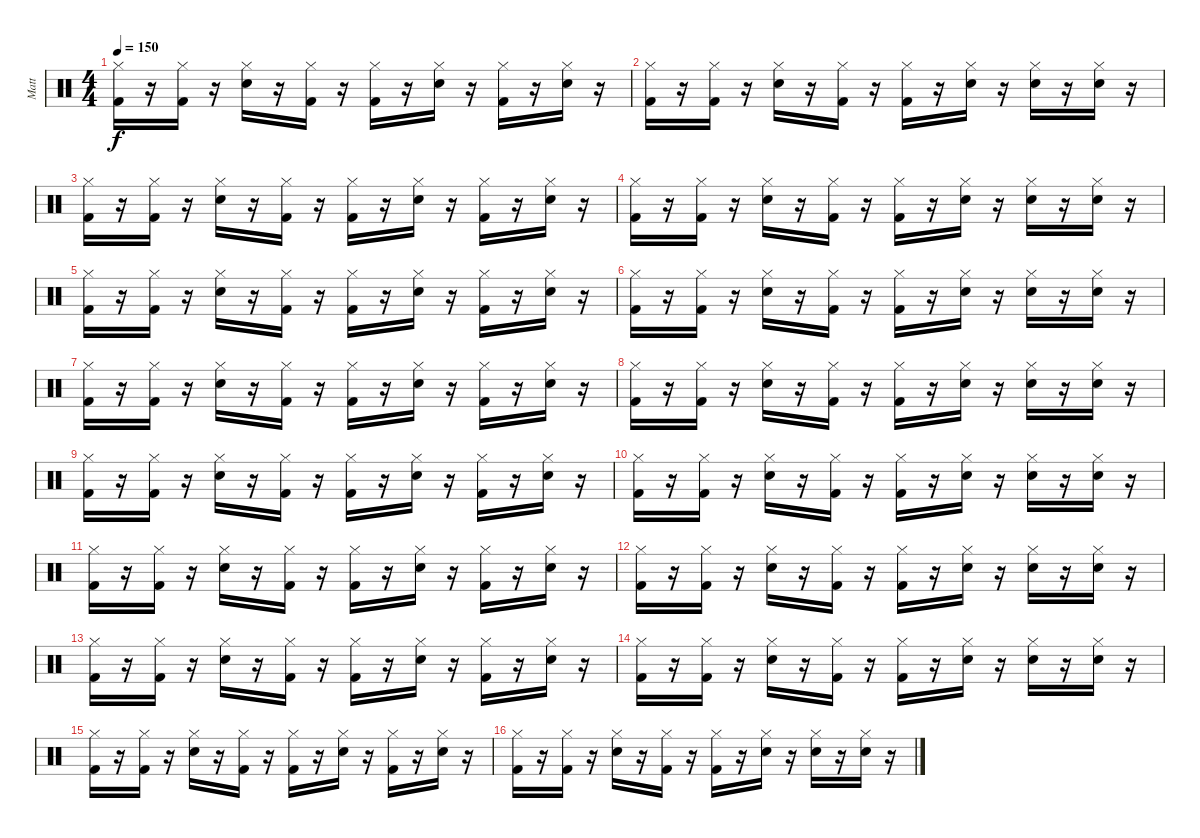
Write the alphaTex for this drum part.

\track ("Matt" "Matt") {instrument percussion}
\staff {score}
\articulation defaults
\ts (4 4)
\tempo 150
\clef neutral
\ks c
("Hi-Hat (closed)" "Kick (hit) 2").16{dy f} r.16 ("Hi-Hat (closed)" "Kick (hit) 2").16 r.16 ("Hi-Hat (closed)" "Snare (hit) 2").16 r.16 ("Hi-Hat (closed)" "Kick (hit) 2").16 r.16 ("Hi-Hat (closed)" "Kick (hit) 2").16 r.16 ("Hi-Hat (closed)" "Snare (hit) 2").16 r.16 ("Hi-Hat (closed)" "Kick (hit) 2").16 r.16 ("Hi-Hat (closed)" "Snare (hit) 2").16 r.16 |
("Hi-Hat (closed)" "Kick (hit) 2").16 r.16 ("Hi-Hat (closed)" "Kick (hit) 2").16 r.16 ("Hi-Hat (closed)" "Snare (hit) 2").16 r.16 ("Hi-Hat (closed)" "Kick (hit) 2").16 r.16 ("Hi-Hat (closed)" "Kick (hit) 2").16 r.16 ("Hi-Hat (closed)" "Snare (hit) 2").16 r.16 ("Hi-Hat (closed)" "Snare (hit) 2").16 r.16 ("Hi-Hat (closed)" "Snare (hit) 2").16 r.16 |
("Hi-Hat (closed)" "Kick (hit) 2").16 r.16 ("Hi-Hat (closed)" "Kick (hit) 2").16 r.16 ("Hi-Hat (closed)" "Snare (hit) 2").16 r.16 ("Hi-Hat (closed)" "Kick (hit) 2").16 r.16 ("Hi-Hat (closed)" "Kick (hit) 2").16 r.16 ("Hi-Hat (closed)" "Snare (hit) 2").16 r.16 ("Hi-Hat (closed)" "Kick (hit) 2").16 r.16 ("Hi-Hat (closed)" "Snare (hit) 2").16 r.16 |
("Hi-Hat (closed)" "Kick (hit) 2").16 r.16 ("Hi-Hat (closed)" "Kick (hit) 2").16 r.16 ("Hi-Hat (closed)" "Snare (hit) 2").16 r.16 ("Hi-Hat (closed)" "Kick (hit) 2").16 r.16 ("Hi-Hat (closed)" "Kick (hit) 2").16 r.16 ("Hi-Hat (closed)" "Snare (hit) 2").16 r.16 ("Hi-Hat (closed)" "Snare (hit) 2").16 r.16 ("Hi-Hat (closed)" "Snare (hit) 2").16 r.16 |
("Hi-Hat (closed)" "Kick (hit) 2").16 r.16 ("Hi-Hat (closed)" "Kick (hit) 2").16 r.16 ("Hi-Hat (closed)" "Snare (hit) 2").16 r.16 ("Hi-Hat (closed)" "Kick (hit) 2").16 r.16 ("Hi-Hat (closed)" "Kick (hit) 2").16 r.16 ("Hi-Hat (closed)" "Snare (hit) 2").16 r.16 ("Hi-Hat (closed)" "Kick (hit) 2").16 r.16 ("Hi-Hat (closed)" "Snare (hit) 2").16 r.16 |
("Hi-Hat (closed)" "Kick (hit) 2").16 r.16 ("Hi-Hat (closed)" "Kick (hit) 2").16 r.16 ("Hi-Hat (closed)" "Snare (hit) 2").16 r.16 ("Hi-Hat (closed)" "Kick (hit) 2").16 r.16 ("Hi-Hat (closed)" "Kick (hit) 2").16 r.16 ("Hi-Hat (closed)" "Snare (hit) 2").16 r.16 ("Hi-Hat (closed)" "Snare (hit) 2").16 r.16 ("Hi-Hat (closed)" "Snare (hit) 2").16 r.16 |
("Hi-Hat (closed)" "Kick (hit) 2").16 r.16 ("Hi-Hat (closed)" "Kick (hit) 2").16 r.16 ("Hi-Hat (closed)" "Snare (hit) 2").16 r.16 ("Hi-Hat (closed)" "Kick (hit) 2").16 r.16 ("Hi-Hat (closed)" "Kick (hit) 2").16 r.16 ("Hi-Hat (closed)" "Snare (hit) 2").16 r.16 ("Hi-Hat (closed)" "Kick (hit) 2").16 r.16 ("Hi-Hat (closed)" "Snare (hit) 2").16 r.16 |
("Hi-Hat (closed)" "Kick (hit) 2").16 r.16 ("Hi-Hat (closed)" "Kick (hit) 2").16 r.16 ("Hi-Hat (closed)" "Snare (hit) 2").16 r.16 ("Hi-Hat (closed)" "Kick (hit) 2").16 r.16 ("Hi-Hat (closed)" "Kick (hit) 2").16 r.16 ("Hi-Hat (closed)" "Snare (hit) 2").16 r.16 ("Hi-Hat (closed)" "Snare (hit) 2").16 r.16 ("Hi-Hat (closed)" "Snare (hit) 2").16 r.16 |
("Hi-Hat (closed)" "Kick (hit) 2").16 r.16 ("Hi-Hat (closed)" "Kick (hit) 2").16 r.16 ("Hi-Hat (closed)" "Snare (hit) 2").16 r.16 ("Hi-Hat (closed)" "Kick (hit) 2").16 r.16 ("Hi-Hat (closed)" "Kick (hit) 2").16 r.16 ("Hi-Hat (closed)" "Snare (hit) 2").16 r.16 ("Hi-Hat (closed)" "Kick (hit) 2").16 r.16 ("Hi-Hat (closed)" "Snare (hit) 2").16 r.16 |
("Hi-Hat (closed)" "Kick (hit) 2").16 r.16 ("Hi-Hat (closed)" "Kick (hit) 2").16 r.16 ("Hi-Hat (closed)" "Snare (hit) 2").16 r.16 ("Hi-Hat (closed)" "Kick (hit) 2").16 r.16 ("Hi-Hat (closed)" "Kick (hit) 2").16 r.16 ("Hi-Hat (closed)" "Snare (hit) 2").16 r.16 ("Hi-Hat (closed)" "Snare (hit) 2").16 r.16 ("Hi-Hat (closed)" "Snare (hit) 2").16 r.16 |
("Hi-Hat (closed)" "Kick (hit) 2").16 r.16 ("Hi-Hat (closed)" "Kick (hit) 2").16 r.16 ("Hi-Hat (closed)" "Snare (hit) 2").16 r.16 ("Hi-Hat (closed)" "Kick (hit) 2").16 r.16 ("Hi-Hat (closed)" "Kick (hit) 2").16 r.16 ("Hi-Hat (closed)" "Snare (hit) 2").16 r.16 ("Hi-Hat (closed)" "Kick (hit) 2").16 r.16 ("Hi-Hat (closed)" "Snare (hit) 2").16 r.16 |
("Hi-Hat (closed)" "Kick (hit) 2").16 r.16 ("Hi-Hat (closed)" "Kick (hit) 2").16 r.16 ("Hi-Hat (closed)" "Snare (hit) 2").16 r.16 ("Hi-Hat (closed)" "Kick (hit) 2").16 r.16 ("Hi-Hat (closed)" "Kick (hit) 2").16 r.16 ("Hi-Hat (closed)" "Snare (hit) 2").16 r.16 ("Hi-Hat (closed)" "Snare (hit) 2").16 r.16 ("Hi-Hat (closed)" "Snare (hit) 2").16 r.16 |
("Hi-Hat (closed)" "Kick (hit) 2").16 r.16 ("Hi-Hat (closed)" "Kick (hit) 2").16 r.16 ("Hi-Hat (closed)" "Snare (hit) 2").16 r.16 ("Hi-Hat (closed)" "Kick (hit) 2").16 r.16 ("Hi-Hat (closed)" "Kick (hit) 2").16 r.16 ("Hi-Hat (closed)" "Snare (hit) 2").16 r.16 ("Hi-Hat (closed)" "Kick (hit) 2").16 r.16 ("Hi-Hat (closed)" "Snare (hit) 2").16 r.16 |
("Hi-Hat (closed)" "Kick (hit) 2").16 r.16 ("Hi-Hat (closed)" "Kick (hit) 2").16 r.16 ("Hi-Hat (closed)" "Snare (hit) 2").16 r.16 ("Hi-Hat (closed)" "Kick (hit) 2").16 r.16 ("Hi-Hat (closed)" "Kick (hit) 2").16 r.16 ("Hi-Hat (closed)" "Snare (hit) 2").16 r.16 ("Hi-Hat (closed)" "Snare (hit) 2").16 r.16 ("Hi-Hat (closed)" "Snare (hit) 2").16 r.16 |
("Hi-Hat (closed)" "Kick (hit) 2").16 r.16 ("Hi-Hat (closed)" "Kick (hit) 2").16 r.16 ("Hi-Hat (closed)" "Snare (hit) 2").16 r.16 ("Hi-Hat (closed)" "Kick (hit) 2").16 r.16 ("Hi-Hat (closed)" "Kick (hit) 2").16 r.16 ("Hi-Hat (closed)" "Snare (hit) 2").16 r.16 ("Hi-Hat (closed)" "Kick (hit) 2").16 r.16 ("Hi-Hat (closed)" "Snare (hit) 2").16 r.16 |
("Hi-Hat (closed)" "Kick (hit) 2").16 r.16 ("Hi-Hat (closed)" "Kick (hit) 2").16 r.16 ("Hi-Hat (closed)" "Snare (hit) 2").16 r.16 ("Hi-Hat (closed)" "Kick (hit) 2").16 r.16 ("Hi-Hat (closed)" "Kick (hit) 2").16 r.16 ("Hi-Hat (closed)" "Snare (hit) 2").16 r.16 ("Hi-Hat (closed)" "Snare (hit) 2").16 r.16 ("Hi-Hat (closed)" "Snare (hit) 2").16 r.16
